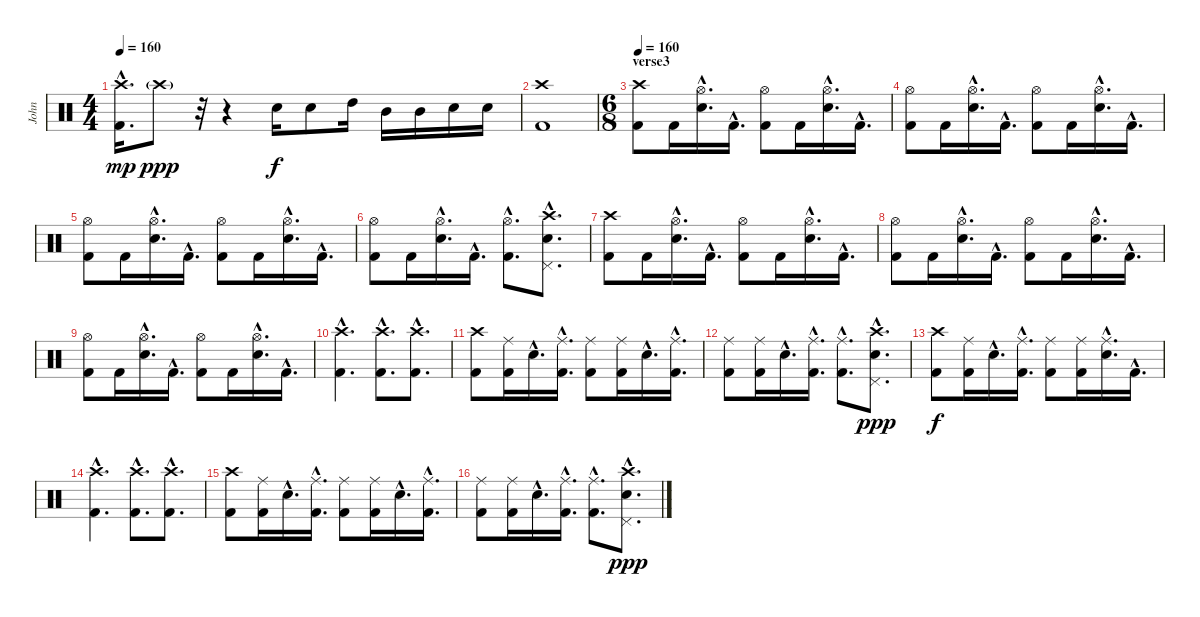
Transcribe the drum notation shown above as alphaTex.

\track ("John" "John") {instrument percussion}
\staff {score}
\articulation defaults
\ts (4 4)
\tempo 160
\clef neutral
\ks c
("Crash high (hit)"{hac} "Kick (hit) 2"{hac}).16{d dy mp} "Crash high (hit)"{g}.8{dy ppp} r.32 r.4 "Electric Snare (hit)".16{dy f} "Electric Snare (hit)".8 "High Tom (hit)".16 "Mid Tom (hit)".16 "Mid Tom (hit)".16 "Electric Snare (hit)".16 "Electric Snare (hit)".16 |
("Crash high (hit)" "Kick (hit) 2").1 |
\ts (6 8)
\section ("" "verse3")
\tempo 160
("Crash high (hit)" "Kick (hit) 2").8{volume 13} "Kick (hit) 2".16 ("Hi-Hat (open)"{hac} "Electric Snare (hit)"{hac}).16{d} "Kick (hit) 2"{hac}.16{d} ("Hi-Hat (open)" "Kick (hit) 2").8 "Kick (hit) 2".16 ("Hi-Hat (open)"{hac} "Electric Snare (hit)"{hac}).16{d} "Kick (hit) 2"{hac}.16{d} |
("Hi-Hat (open)" "Kick (hit) 2").8 "Kick (hit) 2".16 ("Hi-Hat (open)"{hac} "Electric Snare (hit)"{hac}).16{d} "Kick (hit) 2"{hac}.16{d} ("Hi-Hat (open)" "Kick (hit) 2").8 "Kick (hit) 2".16 ("Hi-Hat (open)"{hac} "Electric Snare (hit)"{hac}).16{d} "Kick (hit) 2"{hac}.16{d} |
("Hi-Hat (open)" "Kick (hit) 2").8 "Kick (hit) 2".16 ("Hi-Hat (open)"{hac} "Electric Snare (hit)"{hac}).16{d} "Kick (hit) 2"{hac}.16{d} ("Hi-Hat (open)" "Kick (hit) 2").8 "Kick (hit) 2".16 ("Hi-Hat (open)"{hac} "Electric Snare (hit)"{hac}).16{d} "Kick (hit) 2"{hac}.16{d} |
("Hi-Hat (open)" "Kick (hit) 2").8 "Kick (hit) 2".16 ("Hi-Hat (open)"{hac} "Electric Snare (hit)"{hac}).16{d} "Kick (hit) 2"{hac}.16{d} ("Hi-Hat (open)"{hac} "Kick (hit) 2"{hac}).8{d} ("Crash high (hit)"{hac} "Pedal Hi-Hat (hit)"{hac} "Electric Snare (hit)"{hac}).8{d} |
("Crash high (hit)" "Kick (hit) 2").8 "Kick (hit) 2".16 ("Hi-Hat (open)"{hac} "Electric Snare (hit)"{hac}).16{d} "Kick (hit) 2"{hac}.16{d} ("Hi-Hat (open)" "Kick (hit) 2").8 "Kick (hit) 2".16 ("Hi-Hat (open)"{hac} "Electric Snare (hit)"{hac}).16{d} "Kick (hit) 2"{hac}.16{d} |
("Hi-Hat (open)" "Kick (hit) 2").8 "Kick (hit) 2".16 ("Hi-Hat (open)"{hac} "Electric Snare (hit)"{hac}).16{d} "Kick (hit) 2"{hac}.16{d} ("Hi-Hat (open)" "Kick (hit) 2").8 "Kick (hit) 2".16 ("Hi-Hat (open)"{hac} "Electric Snare (hit)"{hac}).16{d} "Kick (hit) 2"{hac}.16{d} |
("Hi-Hat (open)" "Kick (hit) 2").8 "Kick (hit) 2".16 ("Hi-Hat (open)"{hac} "Electric Snare (hit)"{hac}).16{d} "Kick (hit) 2"{hac}.16{d} ("Hi-Hat (open)" "Kick (hit) 2").8 "Kick (hit) 2".16 ("Hi-Hat (open)"{hac} "Electric Snare (hit)"{hac}).16{d} "Kick (hit) 2"{hac}.16{d} |
("Crash high (hit)"{hac} "Kick (hit) 2"{hac}).4{d} ("Crash high (hit)"{hac} "Kick (hit) 2"{hac}).8{d} ("Crash high (hit)"{hac} "Kick (hit) 2"{hac}).8{d} |
("Crash high (hit)" "Kick (hit) 2").8 ("Ride (middle)" "Kick (hit) 2").16 "Electric Snare (hit)"{hac}.16{d} ("Ride (middle)"{hac} "Kick (hit) 2"{hac}).16{d} ("Ride (middle)" "Kick (hit) 2").8 ("Ride (middle)" "Kick (hit) 2").16 "Electric Snare (hit)"{hac}.16{d} ("Ride (middle)"{hac} "Kick (hit) 2"{hac}).16{d} |
("Ride (middle)" "Kick (hit) 2").8 ("Ride (middle)" "Kick (hit) 2").16 "Electric Snare (hit)"{hac}.16{d} ("Ride (middle)"{hac} "Kick (hit) 2"{hac}).16{d} ("Ride (middle)"{hac} "Kick (hit) 2"{hac}).8{d} ("Crash high (hit)"{hac} "Pedal Hi-Hat (hit)"{hac} "Electric Snare (hit)"{hac}).8{d dy ppp} |
("Crash high (hit)" "Kick (hit) 2").8{dy f} ("Ride (middle)" "Kick (hit) 2").16 "Electric Snare (hit)"{hac}.16{d} ("Ride (middle)"{hac} "Kick (hit) 2"{hac}).16{d} ("Ride (middle)" "Kick (hit) 2").8 ("Ride (middle)" "Kick (hit) 2").16 ("Ride (middle)"{hac} "Electric Snare (hit)"{hac}).16{d} "Kick (hit) 2"{hac}.16{d} |
("Crash high (hit)"{hac} "Kick (hit) 2"{hac}).4{d} ("Crash high (hit)"{hac} "Kick (hit) 2"{hac}).8{d} ("Crash high (hit)"{hac} "Kick (hit) 2"{hac}).8{d} |
("Crash high (hit)" "Kick (hit) 2").8 ("Ride (middle)" "Kick (hit) 2").16 "Electric Snare (hit)"{hac}.16{d} ("Ride (middle)"{hac} "Kick (hit) 2"{hac}).16{d} ("Ride (middle)" "Kick (hit) 2").8 ("Ride (middle)" "Kick (hit) 2").16 "Electric Snare (hit)"{hac}.16{d} ("Ride (middle)"{hac} "Kick (hit) 2"{hac}).16{d} |
("Ride (middle)" "Kick (hit) 2").8 ("Ride (middle)" "Kick (hit) 2").16 "Electric Snare (hit)"{hac}.16{d} ("Ride (middle)"{hac} "Kick (hit) 2"{hac}).16{d} ("Ride (middle)"{hac} "Kick (hit) 2"{hac}).8{d} ("Crash high (hit)"{hac} "Pedal Hi-Hat (hit)"{hac} "Electric Snare (hit)"{hac}).8{d dy ppp}
